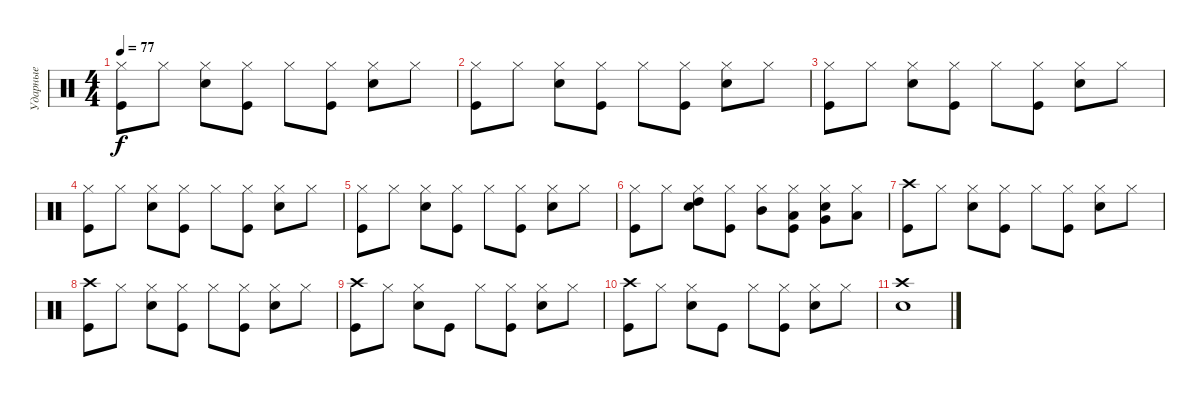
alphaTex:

\track ("Ударные" "Ударные") {solo instrument percussion}
\staff {score}
\articulation defaults
\ts (4 4)
\tempo 77
\clef neutral
\ks c
("Kick (hit)" "Hi-Hat (closed)").8{dy f} "Hi-Hat (closed)".8 ("Snare (hit) 2" "Hi-Hat (closed)").8 ("Kick (hit)" "Hi-Hat (closed)").8 "Hi-Hat (closed)".8 ("Kick (hit)" "Hi-Hat (closed)").8 ("Snare (hit) 2" "Hi-Hat (closed)").8 "Hi-Hat (closed)".8 |
("Kick (hit)" "Hi-Hat (closed)").8 "Hi-Hat (closed)".8 ("Snare (hit) 2" "Hi-Hat (closed)").8 ("Kick (hit)" "Hi-Hat (closed)").8 "Hi-Hat (closed)".8 ("Kick (hit)" "Hi-Hat (closed)").8 ("Snare (hit) 2" "Hi-Hat (closed)").8 "Hi-Hat (closed)".8 |
("Kick (hit)" "Hi-Hat (closed)").8 "Hi-Hat (closed)".8 ("Snare (hit) 2" "Hi-Hat (closed)").8 ("Kick (hit)" "Hi-Hat (closed)").8 "Hi-Hat (closed)".8 ("Kick (hit)" "Hi-Hat (closed)").8 ("Snare (hit) 2" "Hi-Hat (closed)").8 "Hi-Hat (closed)".8 |
("Kick (hit)" "Hi-Hat (closed)").8 "Hi-Hat (closed)".8 ("Snare (hit) 2" "Hi-Hat (closed)").8 ("Kick (hit)" "Hi-Hat (closed)").8 "Hi-Hat (closed)".8 ("Kick (hit)" "Hi-Hat (closed)").8 ("Snare (hit) 2" "Hi-Hat (closed)").8 "Hi-Hat (closed)".8 |
("Kick (hit)" "Hi-Hat (closed)").8 "Hi-Hat (closed)".8 ("Snare (hit) 2" "Hi-Hat (closed)").8 ("Kick (hit)" "Hi-Hat (closed)").8 "Hi-Hat (closed)".8 ("Kick (hit)" "Hi-Hat (closed)").8 ("Snare (hit) 2" "Hi-Hat (closed)").8 "Hi-Hat (closed)".8 |
("Kick (hit)" "Hi-Hat (closed)").8 "Hi-Hat (closed)".8 ("Snare (hit) 2" "High Tom (hit)" "Hi-Hat (closed)").8 ("Kick (hit)" "Hi-Hat (closed)").8 ("Mid Tom (hit)" "Hi-Hat (closed)").8 ("Kick (hit)" "Low Tom (hit)" "Hi-Hat (closed)").8 ("Snare (hit) 2" "Very Low Tom (hit)" "Hi-Hat (closed)").8 ("Low Floor Tom (hit)" "Hi-Hat (closed)").8 |
("Kick (hit)" "Crash high (hit)").8 "Hi-Hat (closed)".8 ("Snare (hit) 2" "Hi-Hat (closed)").8 ("Kick (hit)" "Hi-Hat (closed)").8 "Hi-Hat (closed)".8 ("Kick (hit)" "Hi-Hat (closed)").8 ("Snare (hit) 2" "Hi-Hat (closed)").8 "Hi-Hat (closed)".8 |
("Kick (hit)" "Crash high (hit)").8 "Hi-Hat (closed)".8 ("Snare (hit) 2" "Hi-Hat (closed)").8 ("Kick (hit)" "Hi-Hat (closed)").8 "Hi-Hat (closed)".8 ("Kick (hit)" "Hi-Hat (closed)").8 ("Snare (hit) 2" "Hi-Hat (closed)").8 "Hi-Hat (closed)".8 |
("Kick (hit)" "Crash high (hit)").8 "Hi-Hat (closed)".8 ("Snare (hit) 2" "Hi-Hat (closed)").8 "Kick (hit)".8 "Hi-Hat (closed)".8 ("Kick (hit)" "Hi-Hat (closed)").8 ("Snare (hit) 2" "Hi-Hat (closed)").8 "Hi-Hat (closed)".8 |
("Kick (hit)" "Crash high (hit)").8 "Hi-Hat (closed)".8 ("Snare (hit) 2" "Hi-Hat (closed)").8 "Kick (hit)".8 "Hi-Hat (closed)".8 ("Kick (hit)" "Hi-Hat (closed)").8 ("Snare (hit) 2" "Hi-Hat (closed)").8 "Hi-Hat (closed)".8 |
("Crash high (hit)" "Electric Snare (hit)").1
